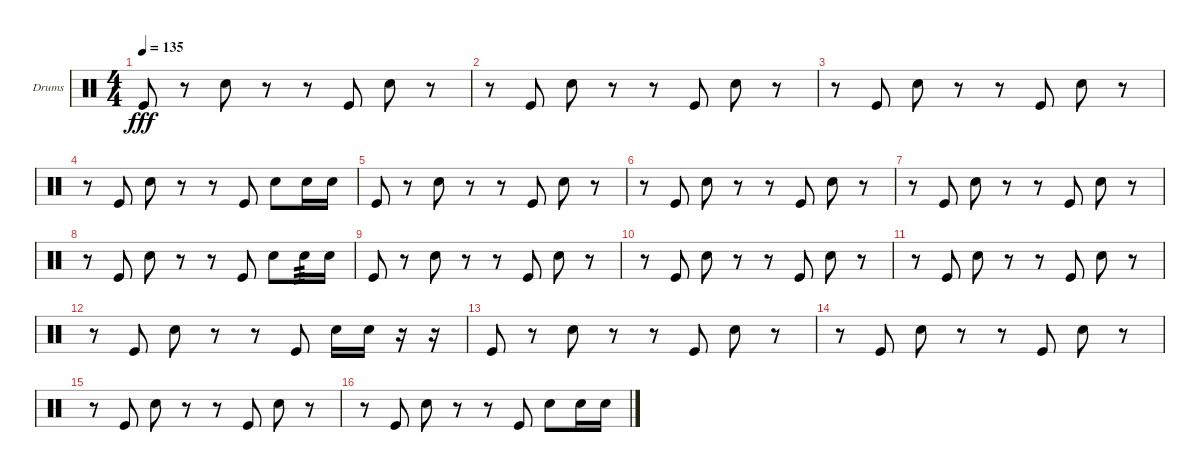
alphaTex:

\defaultSystemsLayout 4
\bracketExtendMode groupsimilarinstruments
\firstSystemTrackNameOrientation horizontal
\otherSystemsTrackNameOrientation horizontal
\track ("Matt Helders" "Drums") {instrument percussion}
\staff {score}
\articulation defaults
\ts (4 4)
\tempo 135
\clef neutral
\ks c "Kick (hit)".8{dy fff}
r.8 "Snare (hit) 2".8 r.8 r.8 "Kick (hit)".8 "Snare (hit) 2".8 r.8 |
r.8 "Kick (hit)".8 "Snare (hit) 2".8 r.8 r.8 "Kick (hit)".8 "Snare (hit) 2".8 r.8 |
r.8 "Kick (hit)".8 "Snare (hit) 2".8 r.8 r.8 "Kick (hit)".8 "Snare (hit) 2".8 r.8 |
r.8 "Kick (hit)".8 "Snare (hit) 2".8 r.8 r.8 "Kick (hit)".8 "Snare (hit) 2".8 "Snare (hit) 2".16 "Snare (hit) 2".16 |
"Kick (hit)".8 r.8 "Snare (hit) 2".8 r.8 r.8 "Kick (hit)".8 "Snare (hit) 2".8 r.8 |
r.8 "Kick (hit)".8 "Snare (hit) 2".8 r.8 r.8 "Kick (hit)".8 "Snare (hit) 2".8 r.8 |
r.8 "Kick (hit)".8 "Snare (hit) 2".8 r.8 r.8 "Kick (hit)".8 "Snare (hit) 2".8 r.8 |
r.8 "Kick (hit)".8 "Snare (hit) 2".8 r.8 r.8 "Kick (hit)".8 "Snare (hit) 2".8 "Snare (hit) 2".16{tp 3} "Snare (hit) 2".16 |
"Kick (hit)".8 r.8 "Snare (hit) 2".8 r.8 r.8 "Kick (hit)".8 "Snare (hit) 2".8 r.8 |
r.8 "Kick (hit)".8 "Snare (hit) 2".8 r.8 r.8 "Kick (hit)".8 "Snare (hit) 2".8 r.8 |
r.8 "Kick (hit)".8 "Snare (hit) 2".8 r.8 r.8 "Kick (hit)".8 "Snare (hit) 2".8 r.8 |
r.8 "Kick (hit)".8 "Snare (hit) 2".8 r.8 r.8 "Kick (hit)".8 "Snare (hit) 2".16 "Snare (hit) 2".16 r.16 r.16 |
"Kick (hit)".8 r.8 "Snare (hit) 2".8 r.8 r.8 "Kick (hit)".8 "Snare (hit) 2".8 r.8 |
r.8 "Kick (hit)".8 "Snare (hit) 2".8 r.8 r.8 "Kick (hit)".8 "Snare (hit) 2".8 r.8 |
r.8 "Kick (hit)".8 "Snare (hit) 2".8 r.8 r.8 "Kick (hit)".8 "Snare (hit) 2".8 r.8 |
r.8 "Kick (hit)".8 "Snare (hit) 2".8 r.8 r.8 "Kick (hit)".8 "Snare (hit) 2".8 "Snare (hit) 2".16 "Snare (hit) 2".16
